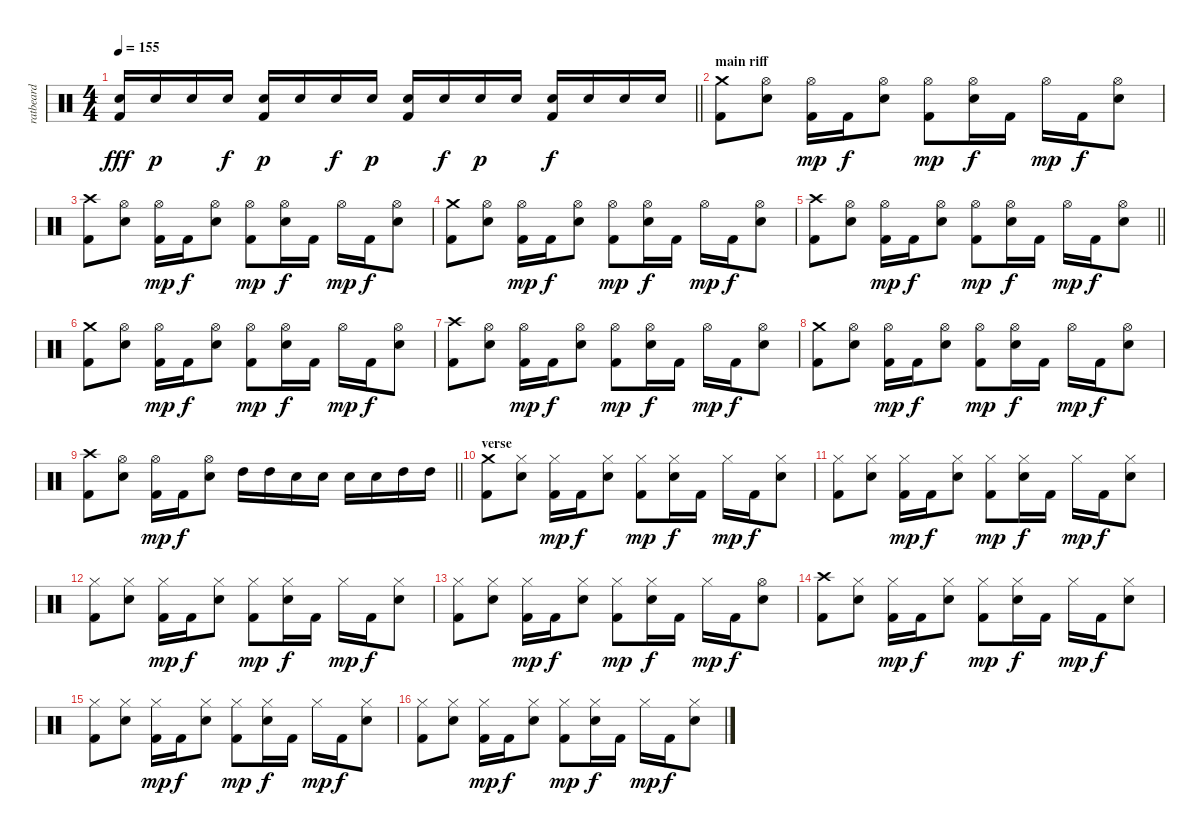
\track ("ratbeard" "ratbeard") {instrument percussion}
\staff {score}
\articulation defaults
\ts (4 4)
\tempo 155
\clef neutral
\barLineRight lightlight
\ks c
("Electric Snare (hit)" "Kick (hit) 2").16{dy fff} "Electric Snare (hit)".16{dy p} "Electric Snare (hit)".16 "Electric Snare (hit)".16{dy f} ("Electric Snare (hit)" "Kick (hit) 2").16{dy p} "Electric Snare (hit)".16 "Electric Snare (hit)".16{dy f} "Electric Snare (hit)".16{dy p} ("Electric Snare (hit)" "Kick (hit) 2").16 "Electric Snare (hit)".16{dy f} "Electric Snare (hit)".16{dy p} "Electric Snare (hit)".16 ("Electric Snare (hit)" "Kick (hit) 2").16{dy f} "Electric Snare (hit)".16 "Electric Snare (hit)".16 "Electric Snare (hit)".16 |
\section ("" "main riff")
("Crash medium (hit)" "Kick (hit) 2").8 ("Hi-Hat (open)" "Electric Snare (hit)").8 ("Hi-Hat (open)" "Kick (hit) 2").16{dy mp} "Kick (hit) 2".16{dy f} ("Hi-Hat (open)" "Electric Snare (hit)").8 ("Hi-Hat (open)" "Kick (hit) 2").8{dy mp} ("Hi-Hat (open)" "Electric Snare (hit)").16{dy f} "Kick (hit) 2".16 "Hi-Hat (open)".16{dy mp} "Kick (hit) 2".16{dy f} ("Hi-Hat (open)" "Electric Snare (hit)").8 |
("Crash high (hit)" "Kick (hit) 2").8 ("Hi-Hat (open)" "Electric Snare (hit)").8 ("Hi-Hat (open)" "Kick (hit) 2").16{dy mp} "Kick (hit) 2".16{dy f} ("Hi-Hat (open)" "Electric Snare (hit)").8 ("Hi-Hat (open)" "Kick (hit) 2").8{dy mp} ("Hi-Hat (open)" "Electric Snare (hit)").16{dy f} "Kick (hit) 2".16 "Hi-Hat (open)".16{dy mp} "Kick (hit) 2".16{dy f} ("Hi-Hat (open)" "Electric Snare (hit)").8 |
("Crash medium (hit)" "Kick (hit) 2").8 ("Hi-Hat (open)" "Electric Snare (hit)").8 ("Hi-Hat (open)" "Kick (hit) 2").16{dy mp} "Kick (hit) 2".16{dy f} ("Hi-Hat (open)" "Electric Snare (hit)").8 ("Hi-Hat (open)" "Kick (hit) 2").8{dy mp} ("Hi-Hat (open)" "Electric Snare (hit)").16{dy f} "Kick (hit) 2".16 "Hi-Hat (open)".16{dy mp} "Kick (hit) 2".16{dy f} ("Hi-Hat (open)" "Electric Snare (hit)").8 |
\barLineRight lightlight
("Crash high (hit)" "Kick (hit) 2").8 ("Hi-Hat (open)" "Electric Snare (hit)").8 ("Hi-Hat (open)" "Kick (hit) 2").16{dy mp} "Kick (hit) 2".16{dy f} ("Hi-Hat (open)" "Electric Snare (hit)").8 ("Hi-Hat (open)" "Kick (hit) 2").8{dy mp} ("Hi-Hat (open)" "Electric Snare (hit)").16{dy f} "Kick (hit) 2".16 "Hi-Hat (open)".16{dy mp} "Kick (hit) 2".16{dy f} ("Hi-Hat (open)" "Electric Snare (hit)").8 |
("Crash medium (hit)" "Kick (hit) 2").8 ("Hi-Hat (open)" "Electric Snare (hit)").8 ("Hi-Hat (open)" "Kick (hit) 2").16{dy mp} "Kick (hit) 2".16{dy f} ("Hi-Hat (open)" "Electric Snare (hit)").8 ("Hi-Hat (open)" "Kick (hit) 2").8{dy mp} ("Hi-Hat (open)" "Electric Snare (hit)").16{dy f} "Kick (hit) 2".16 "Hi-Hat (open)".16{dy mp} "Kick (hit) 2".16{dy f} ("Hi-Hat (open)" "Electric Snare (hit)").8 |
("Crash high (hit)" "Kick (hit) 2").8 ("Hi-Hat (open)" "Electric Snare (hit)").8 ("Hi-Hat (open)" "Kick (hit) 2").16{dy mp} "Kick (hit) 2".16{dy f} ("Hi-Hat (open)" "Electric Snare (hit)").8 ("Hi-Hat (open)" "Kick (hit) 2").8{dy mp} ("Hi-Hat (open)" "Electric Snare (hit)").16{dy f} "Kick (hit) 2".16 "Hi-Hat (open)".16{dy mp} "Kick (hit) 2".16{dy f} ("Hi-Hat (open)" "Electric Snare (hit)").8 |
("Crash medium (hit)" "Kick (hit) 2").8 ("Hi-Hat (open)" "Electric Snare (hit)").8 ("Hi-Hat (open)" "Kick (hit) 2").16{dy mp} "Kick (hit) 2".16{dy f} ("Hi-Hat (open)" "Electric Snare (hit)").8 ("Hi-Hat (open)" "Kick (hit) 2").8{dy mp} ("Hi-Hat (open)" "Electric Snare (hit)").16{dy f} "Kick (hit) 2".16 "Hi-Hat (open)".16{dy mp} "Kick (hit) 2".16{dy f} ("Hi-Hat (open)" "Electric Snare (hit)").8 |
\barLineRight lightlight
("Crash high (hit)" "Kick (hit) 2").8 ("Hi-Hat (open)" "Electric Snare (hit)").8 ("Hi-Hat (open)" "Kick (hit) 2").16{dy mp} "Kick (hit) 2".16{dy f} ("Hi-Hat (open)" "Electric Snare (hit)").8 "High Tom (hit)".16 "High Tom (hit)".16 "Electric Snare (hit)".16 "Electric Snare (hit)".16 "Electric Snare (hit)".16 "Electric Snare (hit)".16 "High Tom (hit)".16 "High Tom (hit)".16 |
\section ("" "verse")
("Crash medium (hit)" "Kick (hit) 2").8 ("Hi-Hat (closed)" "Electric Snare (hit)").8 ("Hi-Hat (closed)" "Kick (hit) 2").16{dy mp} "Kick (hit) 2".16{dy f} ("Hi-Hat (closed)" "Electric Snare (hit)").8 ("Hi-Hat (closed)" "Kick (hit) 2").8{dy mp} ("Hi-Hat (closed)" "Electric Snare (hit)").16{dy f} "Kick (hit) 2".16 "Hi-Hat (closed)".16{dy mp} "Kick (hit) 2".16{dy f} ("Hi-Hat (closed)" "Electric Snare (hit)").8 |
("Hi-Hat (closed)" "Kick (hit) 2").8 ("Hi-Hat (closed)" "Electric Snare (hit)").8 ("Hi-Hat (closed)" "Kick (hit) 2").16{dy mp} "Kick (hit) 2".16{dy f} ("Hi-Hat (closed)" "Electric Snare (hit)").8 ("Hi-Hat (closed)" "Kick (hit) 2").8{dy mp} ("Hi-Hat (closed)" "Electric Snare (hit)").16{dy f} "Kick (hit) 2".16 "Hi-Hat (closed)".16{dy mp} "Kick (hit) 2".16{dy f} ("Hi-Hat (closed)" "Electric Snare (hit)").8 |
("Hi-Hat (closed)" "Kick (hit) 2").8 ("Hi-Hat (closed)" "Electric Snare (hit)").8 ("Hi-Hat (closed)" "Kick (hit) 2").16{dy mp} "Kick (hit) 2".16{dy f} ("Hi-Hat (closed)" "Electric Snare (hit)").8 ("Hi-Hat (closed)" "Kick (hit) 2").8{dy mp} ("Hi-Hat (closed)" "Electric Snare (hit)").16{dy f} "Kick (hit) 2".16 "Hi-Hat (closed)".16{dy mp} "Kick (hit) 2".16{dy f} ("Hi-Hat (closed)" "Electric Snare (hit)").8 |
("Hi-Hat (closed)" "Kick (hit) 2").8 ("Hi-Hat (closed)" "Electric Snare (hit)").8 ("Hi-Hat (closed)" "Kick (hit) 2").16{dy mp} "Kick (hit) 2".16{dy f} ("Hi-Hat (closed)" "Electric Snare (hit)").8 ("Hi-Hat (closed)" "Kick (hit) 2").8{dy mp} ("Hi-Hat (closed)" "Electric Snare (hit)").16{dy f} "Kick (hit) 2".16 "Hi-Hat (closed)".16{dy mp} "Kick (hit) 2".16{dy f} ("Hi-Hat (open)" "Electric Snare (hit)").8 |
("Crash high (hit)" "Kick (hit) 2").8 ("Hi-Hat (closed)" "Electric Snare (hit)").8 ("Hi-Hat (closed)" "Kick (hit) 2").16{dy mp} "Kick (hit) 2".16{dy f} ("Hi-Hat (closed)" "Electric Snare (hit)").8 ("Hi-Hat (closed)" "Kick (hit) 2").8{dy mp} ("Hi-Hat (closed)" "Electric Snare (hit)").16{dy f} "Kick (hit) 2".16 "Hi-Hat (closed)".16{dy mp} "Kick (hit) 2".16{dy f} ("Hi-Hat (closed)" "Electric Snare (hit)").8 |
("Hi-Hat (closed)" "Kick (hit) 2").8 ("Hi-Hat (closed)" "Electric Snare (hit)").8 ("Hi-Hat (closed)" "Kick (hit) 2").16{dy mp} "Kick (hit) 2".16{dy f} ("Hi-Hat (closed)" "Electric Snare (hit)").8 ("Hi-Hat (closed)" "Kick (hit) 2").8{dy mp} ("Hi-Hat (closed)" "Electric Snare (hit)").16{dy f} "Kick (hit) 2".16 "Hi-Hat (closed)".16{dy mp} "Kick (hit) 2".16{dy f} ("Hi-Hat (closed)" "Electric Snare (hit)").8 |
("Hi-Hat (closed)" "Kick (hit) 2").8 ("Hi-Hat (closed)" "Electric Snare (hit)").8 ("Hi-Hat (closed)" "Kick (hit) 2").16{dy mp} "Kick (hit) 2".16{dy f} ("Hi-Hat (closed)" "Electric Snare (hit)").8 ("Hi-Hat (closed)" "Kick (hit) 2").8{dy mp} ("Hi-Hat (closed)" "Electric Snare (hit)").16{dy f} "Kick (hit) 2".16 "Hi-Hat (closed)".16{dy mp} "Kick (hit) 2".16{dy f} ("Hi-Hat (closed)" "Electric Snare (hit)").8
